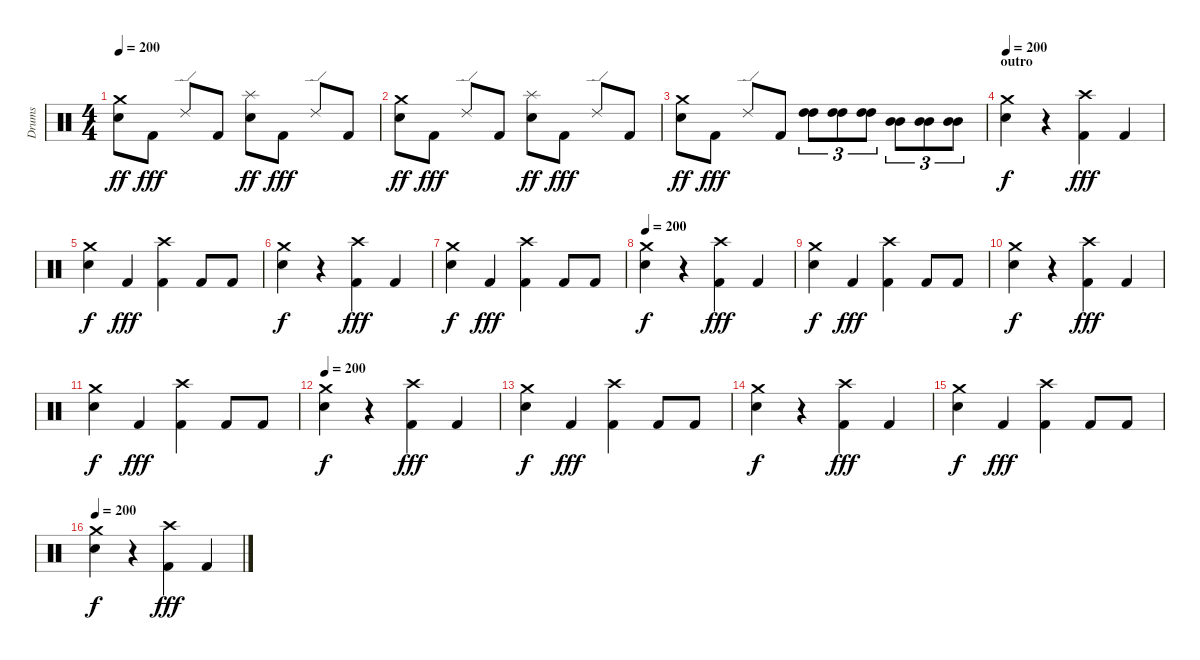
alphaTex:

\track ("Drums" "Drums") {instrument percussion}
\staff {score}
\articulation defaults
\ts (4 4)
\tempo 200
\clef neutral
\ks c
("Crash medium (hit)" "Electric Snare (hit)").8{dy ff} "Kick (hit) 2".8{dy fff} "Ride (edge) 2".8 "Kick (hit) 2".8 ("Electric Snare (hit)" "Splash (hit)").8{dy ff} "Kick (hit) 2".8{dy fff} "Ride (edge) 2".8 "Kick (hit) 2".8 |
("Crash medium (hit)" "Electric Snare (hit)").8{dy ff} "Kick (hit) 2".8{dy fff} "Ride (edge) 2".8 "Kick (hit) 2".8 ("Electric Snare (hit)" "Splash (hit)").8{dy ff} "Kick (hit) 2".8{dy fff} "Ride (edge) 2".8 "Kick (hit) 2".8 |
("Crash medium (hit)" "Electric Snare (hit)").8{dy ff} "Kick (hit) 2".8{dy fff} "Ride (edge) 2".8 "Kick (hit) 2".8 ("High Tom (hit)" "High Tom (hit)").8{tu (3 2)} ("High Tom (hit)" "High Tom (hit)").8{tu (3 2)} ("High Tom (hit)" "High Tom (hit)").8{tu (3 2)} ("Mid Tom (hit)" "Mid Tom (hit)").8{tu (3 2)} ("Mid Tom (hit)" "Mid Tom (hit)").8{tu (3 2)} ("Mid Tom (hit)" "Mid Tom (hit)").8{tu (3 2)} |
\section ("" "outro")
\tempo 200
("Electric Snare (hit)" "Crash medium (hit)").4{dy f} r.4 ("Crash high (hit)" "Kick (hit) 2").4{dy fff} "Kick (hit) 2".4 |
("Electric Snare (hit)" "Crash medium (hit)").4{dy f} "Kick (hit) 2".4{dy fff} ("Crash high (hit)" "Kick (hit) 2").4 "Kick (hit) 2".8 "Kick (hit) 2".8 |
("Electric Snare (hit)" "Crash medium (hit)").4{dy f} r.4 ("Crash high (hit)" "Kick (hit) 2").4{dy fff} "Kick (hit) 2".4 |
("Electric Snare (hit)" "Crash medium (hit)").4{dy f} "Kick (hit) 2".4{dy fff} ("Crash high (hit)" "Kick (hit) 2").4 "Kick (hit) 2".8 "Kick (hit) 2".8 |
\tempo 200
("Electric Snare (hit)" "Crash medium (hit)").4{dy f} r.4 ("Crash high (hit)" "Kick (hit) 2").4{dy fff} "Kick (hit) 2".4 |
("Electric Snare (hit)" "Crash medium (hit)").4{dy f} "Kick (hit) 2".4{dy fff} ("Crash high (hit)" "Kick (hit) 2").4 "Kick (hit) 2".8 "Kick (hit) 2".8 |
("Electric Snare (hit)" "Crash medium (hit)").4{dy f} r.4 ("Crash high (hit)" "Kick (hit) 2").4{dy fff} "Kick (hit) 2".4 |
("Electric Snare (hit)" "Crash medium (hit)").4{dy f} "Kick (hit) 2".4{dy fff} ("Crash high (hit)" "Kick (hit) 2").4 "Kick (hit) 2".8 "Kick (hit) 2".8 |
\tempo 200
("Electric Snare (hit)" "Crash medium (hit)").4{dy f} r.4 ("Crash high (hit)" "Kick (hit) 2").4{dy fff} "Kick (hit) 2".4 |
("Electric Snare (hit)" "Crash medium (hit)").4{dy f} "Kick (hit) 2".4{dy fff} ("Crash high (hit)" "Kick (hit) 2").4 "Kick (hit) 2".8 "Kick (hit) 2".8 |
("Electric Snare (hit)" "Crash medium (hit)").4{dy f} r.4 ("Crash high (hit)" "Kick (hit) 2").4{dy fff} "Kick (hit) 2".4 |
("Electric Snare (hit)" "Crash medium (hit)").4{dy f} "Kick (hit) 2".4{dy fff} ("Crash high (hit)" "Kick (hit) 2").4 "Kick (hit) 2".8 "Kick (hit) 2".8 |
\tempo 200
("Electric Snare (hit)" "Crash medium (hit)").4{dy f} r.4 ("Crash high (hit)" "Kick (hit) 2").4{dy fff} "Kick (hit) 2".4
